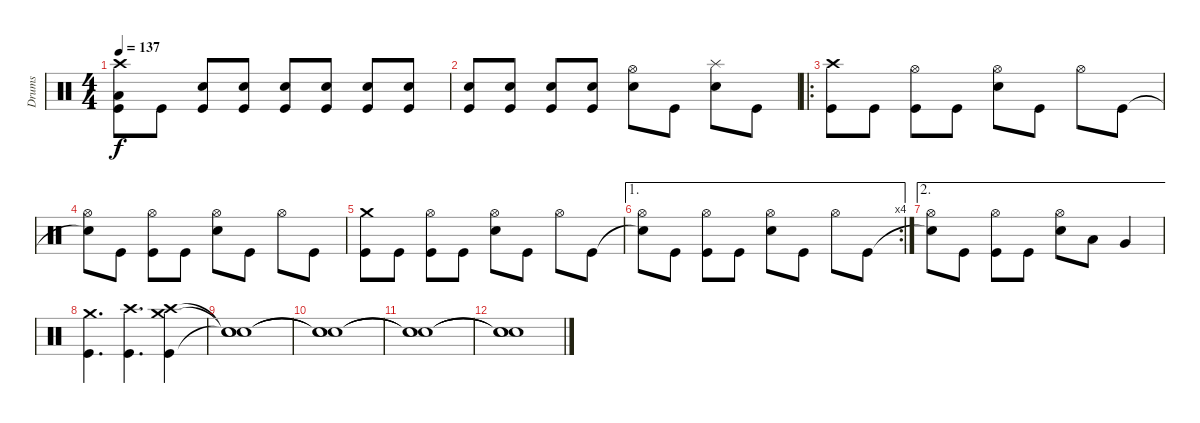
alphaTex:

\track ("Drums" "Drums") {instrument percussion}
\staff {score}
\articulation defaults
\ts (4 4)
\tempo 137
\clef neutral
\ks c
("Kick (hit)" "Low Tom (hit)" "Crash high (hit)").8{dy f} "Kick (hit)".8 ("Kick (hit)" "Snare (hit) 2").8 ("Kick (hit)" "Snare (hit) 2").8 ("Kick (hit)" "Snare (hit) 2").8 ("Kick (hit)" "Snare (hit) 2").8 ("Kick (hit)" "Snare (hit) 2").8 ("Kick (hit)" "Snare (hit) 2").8 |
("Kick (hit)" "Snare (hit) 2").8 ("Kick (hit)" "Snare (hit) 2").8 ("Kick (hit)" "Snare (hit) 2").8 ("Kick (hit)" "Snare (hit) 2").8 ("Snare (hit) 2" "Hi-Hat (open)").8 "Kick (hit)".8 ("Snare (hit) 2" "Splash (hit)").8 "Kick (hit)".8 |
\ro
("Kick (hit)" "Crash high (hit)").8 "Kick (hit)".8 ("Kick (hit)" "Hi-Hat (open)").8 "Kick (hit)".8 ("Snare (hit) 2" "Hi-Hat (open)").8 "Kick (hit)".8 "Hi-Hat (open)".8 "Kick (hit)".8 |
("Snare (hit)"{t} "Hi-Hat (open)").8 "Kick (hit)".8 ("Kick (hit)" "Hi-Hat (open)").8 "Kick (hit)".8 ("Snare (hit) 2" "Hi-Hat (open)").8 "Kick (hit)".8 "Hi-Hat (open)".8 "Kick (hit)".8 |
("Kick (hit)" "Crash medium (hit)").8 "Kick (hit)".8 ("Kick (hit)" "Hi-Hat (open)").8 "Kick (hit)".8 ("Snare (hit) 2" "Hi-Hat (open)").8 "Kick (hit)".8 "Hi-Hat (open)".8 "Kick (hit)".8 |
\ae 1
\rc 4
("Snare (hit)"{t} "Hi-Hat (open)").8 "Kick (hit)".8 ("Kick (hit)" "Hi-Hat (open)").8 "Kick (hit)".8 ("Snare (hit) 2" "Hi-Hat (open)").8 "Kick (hit)".8 "Hi-Hat (open)".8 "Kick (hit)".8 |
\ae 2
("Snare (hit)"{t} "Hi-Hat (open)").8 "Kick (hit)".8 ("Kick (hit)" "Hi-Hat (open)").8 "Kick (hit)".8 ("Snare (hit) 2" "Hi-Hat (open)").8 "Low Tom (hit)".8 "Very Low Tom (hit)".4 |
("Kick (hit)" "Crash medium (hit)").4{d} ("Kick (hit)" "Crash high (hit)").4{d} ("Kick (hit)" "Crash high (hit)" "Crash medium (hit)").4 |
("Snare (hit)"{t} "Snare (hit)"{t} "Snare (hit)"{t}).1 |
("Snare (hit)"{t} "Snare (hit)"{t} "Snare (hit)"{t}).1 |
("Snare (hit)"{t} "Snare (hit)"{t} "Snare (hit)"{t}).1 |
("Snare (hit)"{t} "Snare (hit)"{t} "Snare (hit)"{t}).1
